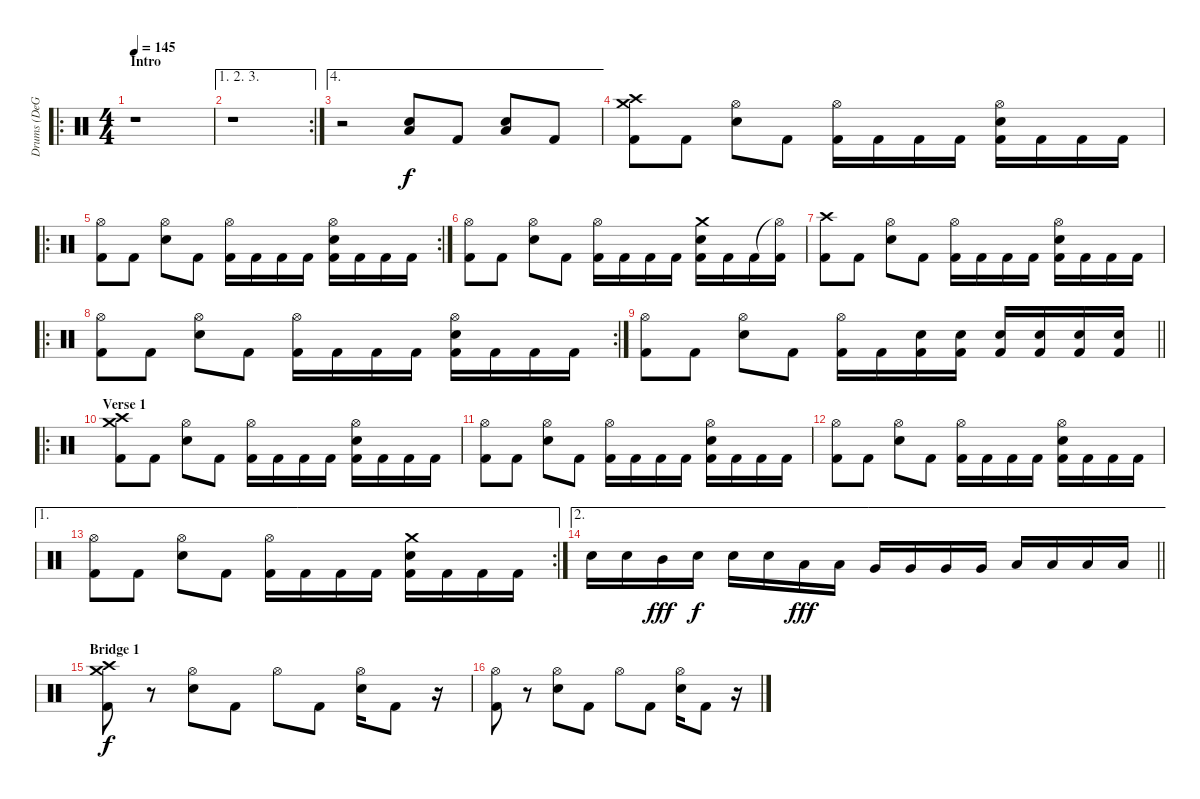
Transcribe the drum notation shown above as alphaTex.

\track ("Drums (DeGrasso)" "Drums (DeG") {instrument percussion}
\staff {score}
\articulation defaults
\ro
\ts (4 4)
\section ("" "Intro")
\tempo 145
\clef neutral
\ks c
r.1{dy f} |
\ae (1 2 3)
\rc 2
r.1 |
\ae 4
r.2 ("Low Floor Tom (hit)" "Snare (hit) 2").8 "Kick (hit) 2".8 ("Low Floor Tom (hit)" "Snare (hit) 2").8 "Kick (hit) 2".8 |
("Crash medium (hit)" "Crash high (hit)" "Kick (hit) 2").8 "Kick (hit) 2".8 ("Hi-Hat (open)" "Snare (hit) 2").8 "Kick (hit) 2".8 ("Hi-Hat (open)" "Kick (hit) 2").16 "Kick (hit) 2".16 "Kick (hit) 2".16 "Kick (hit) 2".16 ("Hi-Hat (open)" "Snare (hit) 2" "Kick (hit) 2").16 "Kick (hit) 2".16 "Kick (hit) 2".16 "Kick (hit) 2".16 |
\ro
\rc 2
("Hi-Hat (open)" "Kick (hit) 2").8 "Kick (hit) 2".8 ("Hi-Hat (open)" "Snare (hit) 2").8 "Kick (hit) 2".8 ("Hi-Hat (open)" "Kick (hit) 2").16 "Kick (hit) 2".16 "Kick (hit) 2".16 "Kick (hit) 2".16 ("Hi-Hat (open)" "Snare (hit) 2" "Kick (hit) 2").16 "Kick (hit) 2".16 "Kick (hit) 2".16 "Kick (hit) 2".16 |
("Hi-Hat (open)" "Kick (hit) 2").8 "Kick (hit) 2".8 ("Hi-Hat (open)" "Snare (hit) 2").8 "Kick (hit) 2".8 ("Hi-Hat (open)" "Kick (hit) 2").16 "Kick (hit) 2".16 "Kick (hit) 2".16 "Kick (hit) 2".16 ("Crash medium (hit)" "Snare (hit) 2" "Kick (hit) 2").16 "Kick (hit) 2".16 "Kick (hit) 2".16 ("Hi-Hat (open)"{t} "Kick (hit) 2").16 |
("Crash high (hit)" "Kick (hit) 2").8 "Kick (hit) 2".8 ("Hi-Hat (open)" "Snare (hit) 2").8 "Kick (hit) 2".8 ("Hi-Hat (open)" "Kick (hit) 2").16 "Kick (hit) 2".16 "Kick (hit) 2".16 "Kick (hit) 2".16 ("Hi-Hat (open)" "Snare (hit) 2" "Kick (hit) 2").16 "Kick (hit) 2".16 "Kick (hit) 2".16 "Kick (hit) 2".16 |
\ro
\rc 2
("Hi-Hat (open)" "Kick (hit) 2").8 "Kick (hit) 2".8 ("Hi-Hat (open)" "Snare (hit) 2").8 "Kick (hit) 2".8 ("Hi-Hat (open)" "Kick (hit) 2").16 "Kick (hit) 2".16 "Kick (hit) 2".16 "Kick (hit) 2".16 ("Hi-Hat (open)" "Snare (hit) 2" "Kick (hit) 2").16 "Kick (hit) 2".16 "Kick (hit) 2".16 "Kick (hit) 2".16 |
\barLineRight lightlight
("Hi-Hat (open)" "Kick (hit) 2").8 "Kick (hit) 2".8 ("Hi-Hat (open)" "Snare (hit) 2").8 "Kick (hit) 2".8 ("Hi-Hat (open)" "Kick (hit) 2").16 "Kick (hit) 2".16 ("Snare (hit) 2" "Kick (hit) 2").16 ("Snare (hit) 2" "Kick (hit) 2").16 ("Snare (hit) 2" "Kick (hit) 2").16 ("Snare (hit) 2" "Kick (hit) 2").16 ("Snare (hit) 2" "Kick (hit) 2").16 ("Snare (hit) 2" "Kick (hit) 2").16 |
\ro
\section ("" "Verse 1")
("Crash medium (hit)" "Crash high (hit)" "Kick (hit) 2").8 "Kick (hit) 2".8 ("Hi-Hat (open)" "Snare (hit) 2").8 "Kick (hit) 2".8 ("Hi-Hat (open)" "Kick (hit) 2").16 "Kick (hit) 2".16 "Kick (hit) 2".16 "Kick (hit) 2".16 ("Hi-Hat (open)" "Snare (hit) 2" "Kick (hit) 2").16 "Kick (hit) 2".16 "Kick (hit) 2".16 "Kick (hit) 2".16 |
("Hi-Hat (open)" "Kick (hit) 2").8 "Kick (hit) 2".8 ("Hi-Hat (open)" "Snare (hit) 2").8 "Kick (hit) 2".8 ("Hi-Hat (open)" "Kick (hit) 2").16 "Kick (hit) 2".16 "Kick (hit) 2".16 "Kick (hit) 2".16 ("Hi-Hat (open)" "Snare (hit) 2" "Kick (hit) 2").16 "Kick (hit) 2".16 "Kick (hit) 2".16 "Kick (hit) 2".16 |
("Hi-Hat (open)" "Kick (hit) 2").8 "Kick (hit) 2".8 ("Hi-Hat (open)" "Snare (hit) 2").8 "Kick (hit) 2".8 ("Hi-Hat (open)" "Kick (hit) 2").16 "Kick (hit) 2".16 "Kick (hit) 2".16 "Kick (hit) 2".16 ("Hi-Hat (open)" "Snare (hit) 2" "Kick (hit) 2").16 "Kick (hit) 2".16 "Kick (hit) 2".16 "Kick (hit) 2".16 |
\ae 1
\rc 2
("Hi-Hat (open)" "Kick (hit) 2").8 "Kick (hit) 2".8 ("Hi-Hat (open)" "Snare (hit) 2").8 "Kick (hit) 2".8 ("Hi-Hat (open)" "Kick (hit) 2").16 "Kick (hit) 2".16 "Kick (hit) 2".16 "Kick (hit) 2".16 ("Crash medium (hit)" "Snare (hit) 2" "Kick (hit) 2").16 "Kick (hit) 2".16 "Kick (hit) 2".16 "Kick (hit) 2".16 |
\ae 2
\barLineRight lightlight "Snare (hit) 2".16 "Snare (hit) 2".16 "Mid Tom (hit)".16{dy fff} "Snare (hit) 2".16{dy f} "Snare (hit) 2".16 "Snare (hit) 2".16 "Low Tom (hit)".16{dy fff} "Low Tom (hit)".16 "Very Low Tom (hit)".16 "Very Low Tom (hit)".16 "Very Low Tom (hit)".16 "Very Low Tom (hit)".16 "Low Floor Tom (hit)".16 "Low Floor Tom (hit)".16 "Low Floor Tom (hit)".16 "Low Floor Tom (hit)".16
|
\section ("" "Bridge 1")
("Crash high (hit)" "Crash medium (hit)" "Kick (hit) 2").8{dy f} r.8 ("Hi-Hat (open)" "Snare (hit) 2").8 "Kick (hit) 2".8 "Hi-Hat (open)".8 "Kick (hit) 2".8 ("Hi-Hat (open)" "Snare (hit) 2").16 "Kick (hit) 2".8 r.16 |
("Hi-Hat (open)" "Kick (hit) 2").8 r.8 ("Hi-Hat (open)" "Snare (hit) 2").8 "Kick (hit) 2".8 "Hi-Hat (open)".8 "Kick (hit) 2".8 ("Hi-Hat (open)" "Snare (hit) 2").16 "Kick (hit) 2".8 r.16
